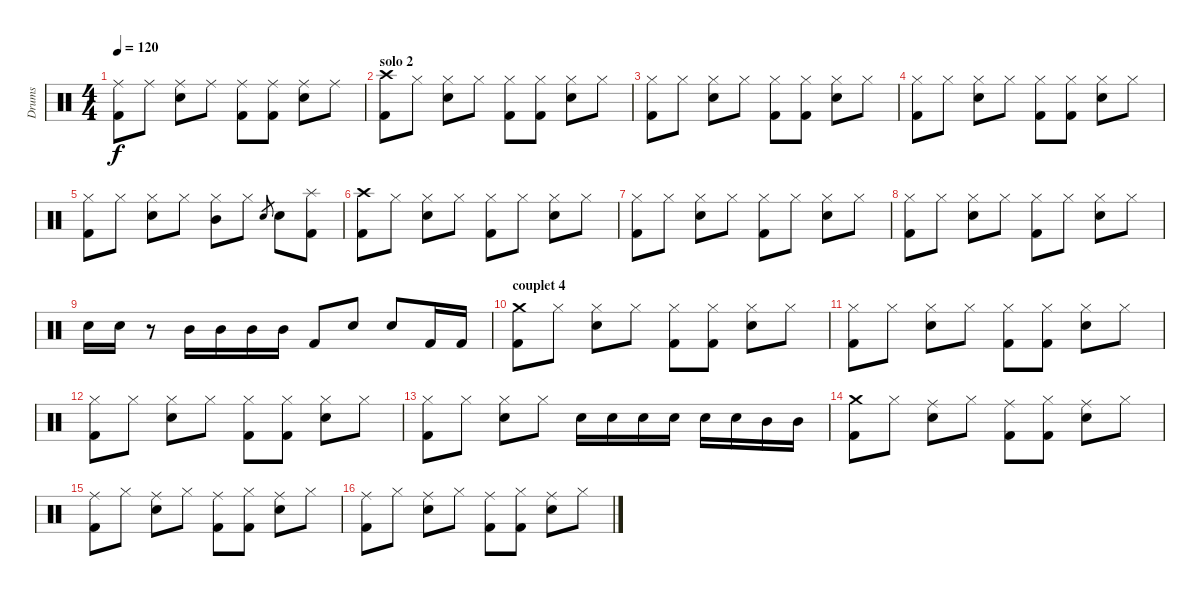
\track ("Drums" "Drums") {instrument percussion}
\staff {score}
\articulation defaults
\ts (4 4)
\tempo 120
\clef neutral
\ks c
("Ride (middle)" "Kick (hit) 2").8{dy f} "Ride (middle)".8 ("Ride (middle)" "Snare (hit) 2").8 "Ride (middle)".8 ("Ride (middle)" "Kick (hit) 2").8 ("Ride (middle)" "Kick (hit) 2").8 ("Ride (middle)" "Snare (hit) 2").8 "Ride (middle)".8 |
\section ("" "solo 2")
("Crash high (hit)" "Kick (hit) 2").8 "Hi-Hat (closed)".8 ("Hi-Hat (closed)" "Snare (hit) 2").8 "Hi-Hat (closed)".8 ("Hi-Hat (closed)" "Kick (hit) 2").8 ("Hi-Hat (closed)" "Kick (hit) 2").8 ("Hi-Hat (closed)" "Snare (hit) 2").8 "Hi-Hat (closed)".8 |
("Hi-Hat (closed)" "Kick (hit) 2").8 "Hi-Hat (closed)".8 ("Hi-Hat (closed)" "Snare (hit) 2").8 "Hi-Hat (closed)".8 ("Hi-Hat (closed)" "Kick (hit) 2").8 ("Hi-Hat (closed)" "Kick (hit) 2").8 ("Hi-Hat (closed)" "Snare (hit) 2").8 "Hi-Hat (closed)".8 |
("Hi-Hat (closed)" "Kick (hit) 2").8 "Hi-Hat (closed)".8 ("Hi-Hat (closed)" "Snare (hit) 2").8 "Hi-Hat (closed)".8 ("Hi-Hat (closed)" "Kick (hit) 2").8 ("Hi-Hat (closed)" "Kick (hit) 2").8 ("Hi-Hat (closed)" "Snare (hit) 2").8 "Hi-Hat (closed)".8 |
("Hi-Hat (closed)" "Kick (hit) 2").8 "Hi-Hat (closed)".8 ("Hi-Hat (closed)" "Snare (hit) 2").8 "Hi-Hat (closed)".8 ("Hi-Hat (closed)" "Mid Tom (hit)").8 "Hi-Hat (closed)".8 "Snare (hit) 2".8{gr} "Snare (hit) 2".8 ("Splash (hit)" "Kick (hit) 2").8 |
("Crash high (hit)" "Kick (hit) 2").8 "Hi-Hat (closed)".8 ("Hi-Hat (closed)" "Snare (hit) 2").8 "Hi-Hat (closed)".8 ("Hi-Hat (closed)" "Kick (hit) 2").8 "Hi-Hat (closed)".8 ("Hi-Hat (closed)" "Snare (hit) 2").8 "Hi-Hat (closed)".8 |
("Hi-Hat (closed)" "Kick (hit) 2").8 "Hi-Hat (closed)".8 ("Hi-Hat (closed)" "Snare (hit) 2").8 "Hi-Hat (closed)".8 ("Hi-Hat (closed)" "Kick (hit) 2").8 "Hi-Hat (closed)".8 ("Hi-Hat (closed)" "Snare (hit) 2").8 "Hi-Hat (closed)".8 |
("Hi-Hat (closed)" "Kick (hit) 2").8 "Hi-Hat (closed)".8 ("Hi-Hat (closed)" "Snare (hit) 2").8 "Hi-Hat (closed)".8 ("Hi-Hat (closed)" "Kick (hit) 2").8 "Hi-Hat (closed)".8 ("Hi-Hat (closed)" "Snare (hit) 2").8 "Hi-Hat (closed)".8 |
"Snare (hit) 2".16 "Snare (hit) 2".16 r.8 "Mid Tom (hit)".16 "Mid Tom (hit)".16 "Mid Tom (hit)".16 "Mid Tom (hit)".16 "Kick (hit) 2".8 "Snare (hit) 2".8 "Snare (hit) 2".8 "Kick (hit) 2".16 "Kick (hit) 2".16 |
\section ("" "couplet 4")
("Crash medium (hit)" "Kick (hit) 2").8 "Hi-Hat (closed)".8 ("Hi-Hat (closed)" "Snare (hit) 2").8 "Hi-Hat (closed)".8 ("Hi-Hat (closed)" "Kick (hit) 2").8 ("Hi-Hat (closed)" "Kick (hit) 2").8 ("Hi-Hat (closed)" "Snare (hit) 2").8 "Hi-Hat (closed)".8 |
("Hi-Hat (closed)" "Kick (hit) 2").8 "Hi-Hat (closed)".8 ("Hi-Hat (closed)" "Snare (hit) 2").8 "Hi-Hat (closed)".8 ("Hi-Hat (closed)" "Kick (hit) 2").8 ("Hi-Hat (closed)" "Kick (hit) 2").8 ("Hi-Hat (closed)" "Snare (hit) 2").8 "Hi-Hat (closed)".8 |
("Hi-Hat (closed)" "Kick (hit) 2").8 "Hi-Hat (closed)".8 ("Hi-Hat (closed)" "Snare (hit) 2").8 "Hi-Hat (closed)".8 ("Hi-Hat (closed)" "Kick (hit) 2").8 ("Hi-Hat (closed)" "Kick (hit) 2").8 ("Hi-Hat (closed)" "Snare (hit) 2").8 "Hi-Hat (closed)".8 |
("Hi-Hat (closed)" "Kick (hit) 2").8 "Hi-Hat (closed)".8 ("Hi-Hat (closed)" "Snare (hit) 2").8 "Hi-Hat (closed)".8 "Snare (hit) 2".16 "Snare (hit) 2".16 "Snare (hit) 2".16 "Snare (hit) 2".16 "Snare (hit) 2".16 "Snare (hit) 2".16 "Mid Tom (hit)".16 "Mid Tom (hit)".16 |
("Crash medium (hit)" "Kick (hit) 2").8 "Hi-Hat (closed)".8 ("Ride (middle)" "Snare (hit) 2").8 "Hi-Hat (closed)".8 ("Ride (middle)" "Kick (hit) 2").8 ("Hi-Hat (closed)" "Kick (hit) 2").8 ("Ride (middle)" "Snare (hit) 2").8 "Hi-Hat (closed)".8 |
("Ride (middle)" "Kick (hit) 2").8 "Hi-Hat (closed)".8 ("Ride (middle)" "Snare (hit) 2").8 "Hi-Hat (closed)".8 ("Ride (middle)" "Kick (hit) 2").8 ("Hi-Hat (closed)" "Kick (hit) 2").8 ("Ride (middle)" "Snare (hit) 2").8 "Hi-Hat (closed)".8 |
("Ride (middle)" "Kick (hit) 2").8 "Hi-Hat (closed)".8 ("Ride (middle)" "Snare (hit) 2").8 "Hi-Hat (closed)".8 ("Ride (middle)" "Kick (hit) 2").8 ("Hi-Hat (closed)" "Kick (hit) 2").8 ("Ride (middle)" "Snare (hit) 2").8 "Hi-Hat (closed)".8
